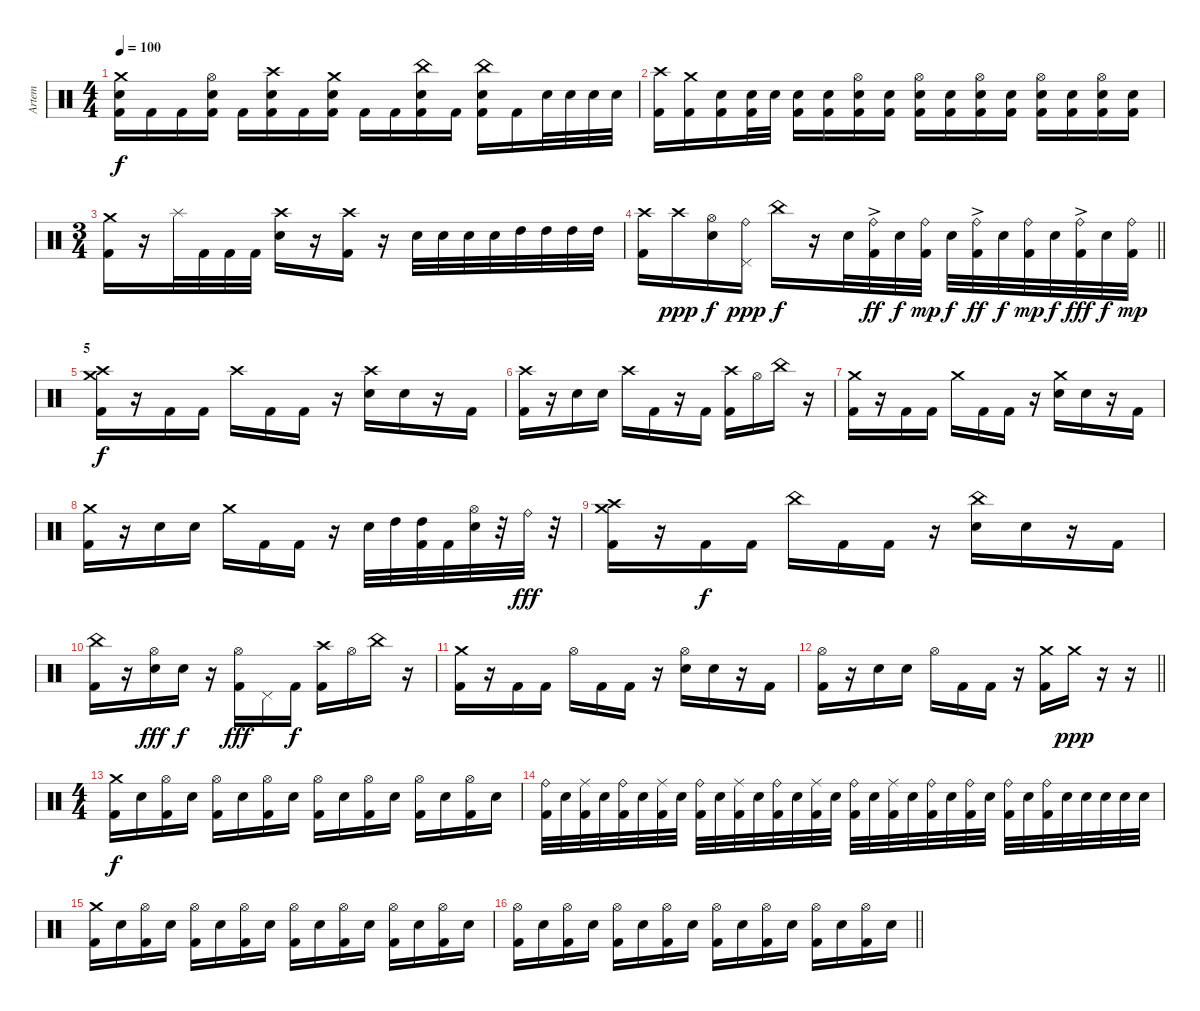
\track ("Artem" "Artem") {instrument percussion}
\staff {score}
\articulation defaults
\ts (4 4)
\tempo 100
\clef neutral
\ks c
("Crash medium (hit)" "Electric Snare (hit)" "Kick (hit) 2").16{dy f} "Kick (hit) 2".16 "Kick (hit) 2".16 ("Kick (hit) 2" "Electric Snare (hit)" "Hi-Hat (open)").16 "Kick (hit) 2".16 ("Kick (hit) 2" "Electric Snare (hit)" "Crash high (hit)").16 "Kick (hit) 2".16 ("Kick (hit) 2" "Electric Snare (hit)" "Crash medium (hit)").16 "Kick (hit) 2".16 "Kick (hit) 2".16 ("China (hit)" "Kick (hit) 2" "Electric Snare (hit)").16 "Kick (hit) 2".16 ("China (hit)" "Kick (hit) 2" "Electric Snare (hit)").16 "Kick (hit) 2".16 "Electric Snare (hit)".32 "Electric Snare (hit)".32 "Electric Snare (hit)".32 "Electric Snare (hit)".32 |
("Kick (hit) 2" "Crash high (hit)").16 ("Kick (hit) 2" "Crash medium (hit)").16 ("Kick (hit) 2" "Electric Snare (hit)").16 ("Kick (hit) 2" "Electric Snare (hit)").32 "Electric Snare (hit)".32 ("Kick (hit) 2" "Electric Snare (hit)").16 ("Kick (hit) 2" "Electric Snare (hit)").16 ("Kick (hit) 2" "Electric Snare (hit)" "Hi-Hat (open)").16 ("Kick (hit) 2" "Electric Snare (hit)").16 ("Kick (hit) 2" "Electric Snare (hit)" "Hi-Hat (open)").16 ("Kick (hit) 2" "Electric Snare (hit)").16 ("Kick (hit) 2" "Electric Snare (hit)" "Hi-Hat (open)").16 ("Kick (hit) 2" "Electric Snare (hit)").16 ("Kick (hit) 2" "Electric Snare (hit)" "Hi-Hat (open)").16 ("Kick (hit) 2" "Electric Snare (hit)").16 ("Kick (hit) 2" "Electric Snare (hit)" "Hi-Hat (open)").16 ("Kick (hit) 2" "Electric Snare (hit)").16 |
\ts (3 4)
("Crash medium (hit)" "Kick (hit) 2").16 r.16 "Splash (hit)".32 "Kick (hit) 2".32 "Kick (hit) 2".32 "Kick (hit) 2".32 ("Crash high (hit)" "Electric Snare (hit)").16 r.16 ("Crash high (hit)" "Kick (hit) 2").16 r.16 "Electric Snare (hit)".32 "Electric Snare (hit)".32 "Electric Snare (hit)".32 "Electric Snare (hit)".32 "High Tom (hit)".32 "High Tom (hit)".32 "High Tom (hit)".32 "High Tom (hit)".32 |
\barLineRight lightlight
("Crash high (hit)" "Kick (hit) 2").16 "Crash high (hit)".16{dy ppp} ("Hi-Hat (open)" "Electric Snare (hit)").16{dy f} ("Pedal Hi-Hat (hit)" "Ride (bell)").16{dy ppp} "China (hit)".16{dy f} r.16 "Electric Snare (hit)".32 ("Kick (hit) 2" "Ride (bell)"{ac}).32{dy ff} "Electric Snare (hit)".32{dy f} ("Kick (hit) 2" "Ride (bell)").32{dy mp} "Electric Snare (hit)".32{dy f} ("Kick (hit) 2" "Ride (bell)"{ac}).32{dy ff} "Electric Snare (hit)".32{dy f} ("Kick (hit) 2" "Ride (bell)").32{dy mp} "Electric Snare (hit)".32{dy f} ("Kick (hit) 2" "Ride (bell)"{ac}).32{dy fff} "Electric Snare (hit)".32{dy f} ("Kick (hit) 2" "Ride (bell)").32{dy mp} |
\section ("" "5")
("Crash high (hit)" "Kick (hit) 2" "Crash medium (hit)").16{dy f} r.16 "Kick (hit) 2".16 "Kick (hit) 2".16 "Crash high (hit)".16 "Kick (hit) 2".16 "Kick (hit) 2".16 r.16 ("Crash high (hit)" "Electric Snare (hit)").16 "Electric Snare (hit)".16 r.16 "Kick (hit) 2".16 |
("Crash high (hit)" "Kick (hit) 2").16 r.16 "Electric Snare (hit)".16 "Electric Snare (hit)".16 "Crash high (hit)".16 "Kick (hit) 2".16 r.16 "Kick (hit) 2".16 ("Kick (hit) 2" "Crash high (hit)").16 "Hi-Hat (open)".16 "China (hit)".16 r.16 |
("Crash medium (hit)" "Kick (hit) 2").16 r.16 "Kick (hit) 2".16 "Kick (hit) 2".16 "Crash medium (hit)".16 "Kick (hit) 2".16 "Kick (hit) 2".16 r.16 ("Crash medium (hit)" "Electric Snare (hit)").16 "Electric Snare (hit)".16 r.16 "Kick (hit) 2".16 |
("Crash medium (hit)" "Kick (hit) 2").16 r.16 "Electric Snare (hit)".16 "Electric Snare (hit)".16 "Crash medium (hit)".16 "Kick (hit) 2".16 "Kick (hit) 2".16 r.16 "Electric Snare (hit)".32 "High Tom (hit)".32 ("High Tom (hit)" "Kick (hit) 2").32 "Kick (hit) 2".32 ("Electric Snare (hit)" "Hi-Hat (open)").32 r.32 "Ride (bell)".32{dy fff} r.32 |
("Crash high (hit)" "Kick (hit) 2" "Crash medium (hit)").16 r.16 "Kick (hit) 2".16{dy f} "Kick (hit) 2".16 "China (hit)".16 "Kick (hit) 2".16 "Kick (hit) 2".16 r.16 ("China (hit)" "Electric Snare (hit)").16 "Electric Snare (hit)".16 r.16 "Kick (hit) 2".16 |
("China (hit)" "Kick (hit) 2").16 r.16 ("Electric Snare (hit)" "Hi-Hat (open)").16{dy fff} "Electric Snare (hit)".16{dy f} r.16 ("Kick (hit) 2" "Hi-Hat (open)").16{dy fff} "Pedal Hi-Hat (hit)".16 "Kick (hit) 2".16{dy f} ("Kick (hit) 2" "Crash high (hit)").16 "Hi-Hat (open)".16 "China (hit)".16 r.16 |
("Crash medium (hit)" "Kick (hit) 2").16 r.16 "Kick (hit) 2".16 "Kick (hit) 2".16 "Hi-Hat (open)".16 "Kick (hit) 2".16 "Kick (hit) 2".16 r.16 ("Hi-Hat (open)" "Electric Snare (hit)").16 "Electric Snare (hit)".16 r.16 "Kick (hit) 2".16 |
\barLineRight lightlight
("Hi-Hat (open)" "Kick (hit) 2").16 r.16 "Electric Snare (hit)".16 "Electric Snare (hit)".16 "Hi-Hat (open)".16 "Kick (hit) 2".16 "Kick (hit) 2".16 r.16 ("Kick (hit) 2" "Crash medium (hit)").16 "Crash medium (hit)".16{dy ppp} r.16 r.16 |
\ts (4 4)
("Kick (hit) 2" "Crash medium (hit)").16{dy f} "Electric Snare (hit)".16 ("Hi-Hat (open)" "Kick (hit) 2").16 "Electric Snare (hit)".16 ("Hi-Hat (open)" "Kick (hit) 2").16 "Electric Snare (hit)".16 ("Hi-Hat (open)" "Kick (hit) 2").16 "Electric Snare (hit)".16 ("Hi-Hat (open)" "Kick (hit) 2").16 "Electric Snare (hit)".16 ("Hi-Hat (open)" "Kick (hit) 2").16 "Electric Snare (hit)".16 ("Hi-Hat (open)" "Kick (hit) 2").16 "Electric Snare (hit)".16 ("Hi-Hat (open)" "Kick (hit) 2").16 "Electric Snare (hit)".16 |
("Ride (bell)" "Kick (hit) 2").32 "Electric Snare (hit)".32 ("Ride (middle)" "Kick (hit) 2").32 "Electric Snare (hit)".32 ("Ride (bell)" "Kick (hit) 2").32 "Electric Snare (hit)".32 ("Ride (middle)" "Kick (hit) 2").32 "Electric Snare (hit)".32 ("Ride (bell)" "Kick (hit) 2").32 "Electric Snare (hit)".32 ("Ride (middle)" "Kick (hit) 2").32 "Electric Snare (hit)".32 ("Ride (bell)" "Kick (hit) 2").32 "Electric Snare (hit)".32 ("Ride (middle)" "Kick (hit) 2").32 "Electric Snare (hit)".32 ("Ride (bell)" "Kick (hit) 2").32 "Electric Snare (hit)".32 ("Ride (middle)" "Kick (hit) 2").32 "Electric Snare (hit)".32 ("Ride (bell)" "Kick (hit) 2").32 "Electric Snare (hit)".32 ("Ride (bell)" "Kick (hit) 2").32 "Electric Snare (hit)".32 ("Ride (bell)" "Kick (hit) 2").32 "Electric Snare (hit)".32 ("Ride (bell)" "Kick (hit) 2").32 "Electric Snare (hit)".32 "Electric Snare (hit)".32 "Electric Snare (hit)".32 "Electric Snare (hit)".32 "Electric Snare (hit)".32 |
("Kick (hit) 2" "Crash medium (hit)").16 "Electric Snare (hit)".16 ("Hi-Hat (open)" "Kick (hit) 2").16 "Electric Snare (hit)".16 ("Hi-Hat (open)" "Kick (hit) 2").16 "Electric Snare (hit)".16 ("Hi-Hat (open)" "Kick (hit) 2").16 "Electric Snare (hit)".16 ("Hi-Hat (open)" "Kick (hit) 2").16 "Electric Snare (hit)".16 ("Hi-Hat (open)" "Kick (hit) 2").16 "Electric Snare (hit)".16 ("Hi-Hat (open)" "Kick (hit) 2").16 "Electric Snare (hit)".16 ("Hi-Hat (open)" "Kick (hit) 2").16 "Electric Snare (hit)".16 |
\barLineRight lightlight
("Hi-Hat (open)" "Kick (hit) 2").16 "Electric Snare (hit)".16 ("Hi-Hat (open)" "Kick (hit) 2").16 "Electric Snare (hit)".16 ("Hi-Hat (open)" "Kick (hit) 2").16 "Electric Snare (hit)".16 ("Hi-Hat (open)" "Kick (hit) 2").16 "Electric Snare (hit)".16 ("Hi-Hat (open)" "Kick (hit) 2").16 "Electric Snare (hit)".16 ("Hi-Hat (open)" "Kick (hit) 2").16 "Electric Snare (hit)".16 ("Hi-Hat (open)" "Kick (hit) 2").16 "Electric Snare (hit)".16 ("Hi-Hat (open)" "Kick (hit) 2").16 "Electric Snare (hit)".16
